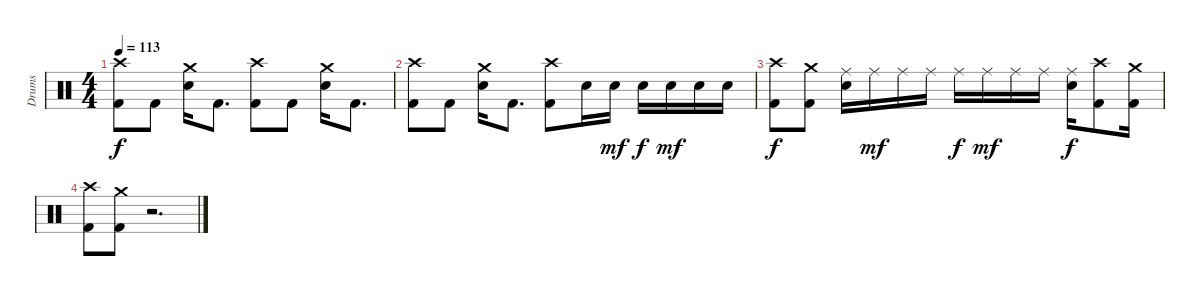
\track ("Drums" "Drums") {instrument percussion}
\staff {score}
\articulation defaults
\ts (4 4)
\tempo 113
\clef neutral
\ks c
("Kick (hit) 2" "Crash high (hit)").8{dy f} "Kick (hit) 2".8 ("Crash medium (hit)" "Electric Snare (hit)").16 "Kick (hit) 2".8{d} ("Kick (hit) 2" "Crash high (hit)").8 "Kick (hit) 2".8 ("Crash medium (hit)" "Electric Snare (hit)").16 "Kick (hit) 2".8{d} |
("Kick (hit) 2" "Crash high (hit)").8 "Kick (hit) 2".8 ("Crash medium (hit)" "Electric Snare (hit)").16 "Kick (hit) 2".8{d} ("Kick (hit) 2" "Crash high (hit)").8 "Electric Snare (hit)".16 "Electric Snare (hit)".16{dy mf} "Electric Snare (hit)".16{dy f} "Electric Snare (hit)".16{dy mf} "Electric Snare (hit)".16 "Electric Snare (hit)".16 |
("Kick (hit) 2" "Crash high (hit)").8{dy f} ("Kick (hit) 2" "Crash medium (hit)").8 ("Ride (middle)" "Electric Snare (hit)").16 "Ride (middle)".16{dy mf} "Ride (middle)".16 "Ride (middle)".16 "Ride (middle)".16{dy f} "Ride (middle)".16{dy mf} "Ride (middle)".16 "Ride (middle)".16 ("Ride (middle)" "Electric Snare (hit)").16{dy f} ("Kick (hit) 2" "Crash high (hit)").8 ("Kick (hit) 2" "Crash medium (hit)").16 |
("Kick (hit) 2" "Crash high (hit)").8 ("Kick (hit) 2" "Crash medium (hit)").8 r.2{d}
